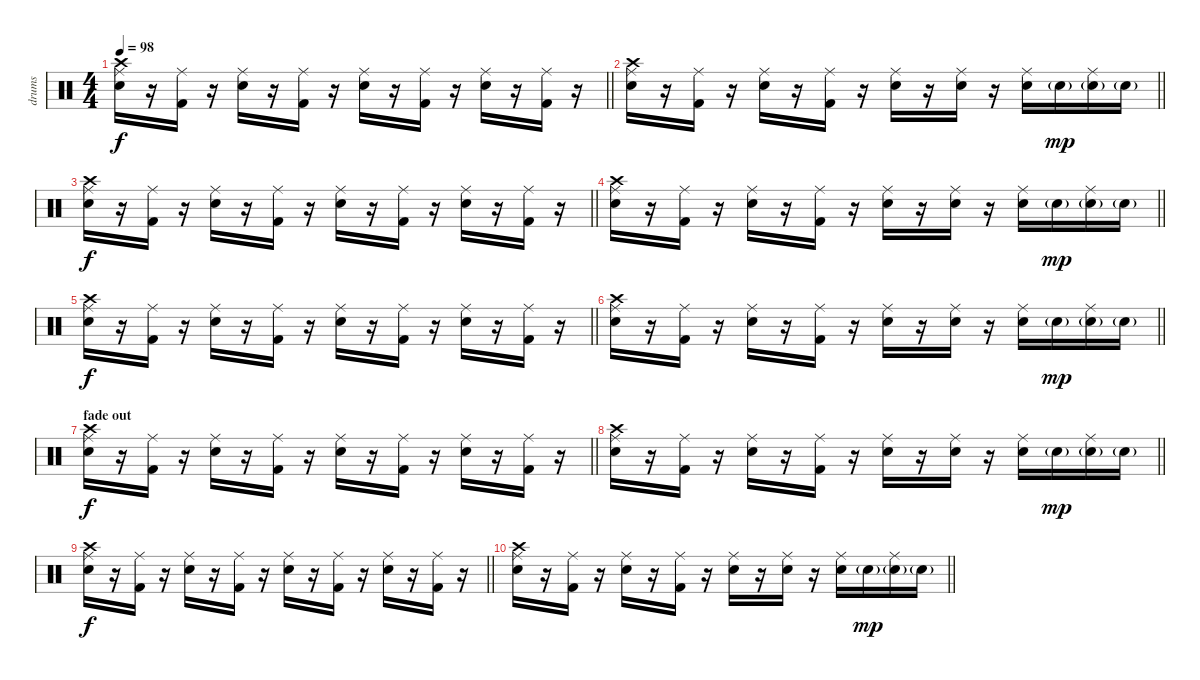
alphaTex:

\track ("drums" "drums") {instrument percussion}
\staff {score}
\articulation defaults
\ts (4 4)
\tempo 98
\clef neutral
\barLineRight lightlight
\ks c
("Electric Snare (hit)" "Ride (middle)" "Crash high (hit)").16{dy f} r.16 ("Kick (hit) 2" "Ride (middle)").16 r.16 ("Electric Snare (hit)" "Ride (middle)").16 r.16 ("Kick (hit) 2" "Ride (middle)").16 r.16 ("Electric Snare (hit)" "Ride (middle)").16 r.16 ("Kick (hit) 2" "Ride (middle)").16 r.16 ("Electric Snare (hit)" "Ride (middle)").16 r.16 ("Kick (hit) 2" "Ride (middle)").16 r.16 |
\barLineRight lightlight
("Electric Snare (hit)" "Ride (middle)" "Crash high (hit)").16 r.16 ("Kick (hit) 2" "Ride (middle)").16 r.16 ("Electric Snare (hit)" "Ride (middle)").16 r.16 ("Kick (hit) 2" "Ride (middle)").16 r.16 ("Electric Snare (hit)" "Ride (middle)").16 r.16 ("Electric Snare (hit)" "Ride (middle)").16 r.16 ("Electric Snare (hit)" "Ride (middle)").16 "Electric Snare (hit)"{g}.16{dy mp} ("Electric Snare (hit)"{g} "Ride (middle)").16 "Electric Snare (hit)"{g}.16 |
\barLineRight lightlight
("Electric Snare (hit)" "Ride (middle)" "Crash high (hit)").16{dy f} r.16 ("Kick (hit) 2" "Ride (middle)").16 r.16 ("Electric Snare (hit)" "Ride (middle)").16 r.16 ("Kick (hit) 2" "Ride (middle)").16 r.16 ("Electric Snare (hit)" "Ride (middle)").16 r.16 ("Kick (hit) 2" "Ride (middle)").16 r.16 ("Electric Snare (hit)" "Ride (middle)").16 r.16 ("Kick (hit) 2" "Ride (middle)").16 r.16 |
\barLineRight lightlight
("Electric Snare (hit)" "Ride (middle)" "Crash high (hit)").16 r.16 ("Kick (hit) 2" "Ride (middle)").16 r.16 ("Electric Snare (hit)" "Ride (middle)").16 r.16 ("Kick (hit) 2" "Ride (middle)").16 r.16 ("Electric Snare (hit)" "Ride (middle)").16 r.16 ("Electric Snare (hit)" "Ride (middle)").16 r.16 ("Electric Snare (hit)" "Ride (middle)").16 "Electric Snare (hit)"{g}.16{dy mp} ("Electric Snare (hit)"{g} "Ride (middle)").16 "Electric Snare (hit)"{g}.16 |
\barLineRight lightlight
("Electric Snare (hit)" "Ride (middle)" "Crash high (hit)").16{dy f} r.16 ("Kick (hit) 2" "Ride (middle)").16 r.16 ("Electric Snare (hit)" "Ride (middle)").16 r.16 ("Kick (hit) 2" "Ride (middle)").16 r.16 ("Electric Snare (hit)" "Ride (middle)").16 r.16 ("Kick (hit) 2" "Ride (middle)").16 r.16 ("Electric Snare (hit)" "Ride (middle)").16 r.16 ("Kick (hit) 2" "Ride (middle)").16 r.16 |
\barLineRight lightlight
("Electric Snare (hit)" "Ride (middle)" "Crash high (hit)").16 r.16 ("Kick (hit) 2" "Ride (middle)").16 r.16 ("Electric Snare (hit)" "Ride (middle)").16 r.16 ("Kick (hit) 2" "Ride (middle)").16 r.16 ("Electric Snare (hit)" "Ride (middle)").16 r.16 ("Electric Snare (hit)" "Ride (middle)").16 r.16 ("Electric Snare (hit)" "Ride (middle)").16 "Electric Snare (hit)"{g}.16{dy mp} ("Electric Snare (hit)"{g} "Ride (middle)").16 "Electric Snare (hit)"{g}.16 |
\section ("" "fade out")
\barLineRight lightlight
("Electric Snare (hit)" "Ride (middle)" "Crash high (hit)").16{dy f} r.16 ("Kick (hit) 2" "Ride (middle)").16 r.16 ("Electric Snare (hit)" "Ride (middle)").16 r.16 ("Kick (hit) 2" "Ride (middle)").16 r.16 ("Electric Snare (hit)" "Ride (middle)").16 r.16 ("Kick (hit) 2" "Ride (middle)").16 r.16 ("Electric Snare (hit)" "Ride (middle)").16 r.16 ("Kick (hit) 2" "Ride (middle)").16 r.16 |
\barLineRight lightlight
("Electric Snare (hit)" "Ride (middle)" "Crash high (hit)").16 r.16 ("Kick (hit) 2" "Ride (middle)").16 r.16 ("Electric Snare (hit)" "Ride (middle)").16 r.16 ("Kick (hit) 2" "Ride (middle)").16 r.16 ("Electric Snare (hit)" "Ride (middle)").16 r.16 ("Electric Snare (hit)" "Ride (middle)").16 r.16 ("Electric Snare (hit)" "Ride (middle)").16 "Electric Snare (hit)"{g}.16{dy mp} ("Electric Snare (hit)"{g} "Ride (middle)").16 "Electric Snare (hit)"{g}.16 |
\barLineRight lightlight
("Electric Snare (hit)" "Ride (middle)" "Crash high (hit)").16{dy f} r.16 ("Kick (hit) 2" "Ride (middle)").16 r.16 ("Electric Snare (hit)" "Ride (middle)").16 r.16 ("Kick (hit) 2" "Ride (middle)").16 r.16 ("Electric Snare (hit)" "Ride (middle)").16 r.16 ("Kick (hit) 2" "Ride (middle)").16 r.16 ("Electric Snare (hit)" "Ride (middle)").16 r.16 ("Kick (hit) 2" "Ride (middle)").16 r.16 |
\barLineRight lightlight
("Electric Snare (hit)" "Ride (middle)" "Crash high (hit)").16 r.16 ("Kick (hit) 2" "Ride (middle)").16 r.16 ("Electric Snare (hit)" "Ride (middle)").16 r.16 ("Kick (hit) 2" "Ride (middle)").16 r.16 ("Electric Snare (hit)" "Ride (middle)").16 r.16 ("Electric Snare (hit)" "Ride (middle)").16 r.16 ("Electric Snare (hit)" "Ride (middle)").16 "Electric Snare (hit)"{g}.16{dy mp} ("Electric Snare (hit)"{g} "Ride (middle)").16 "Electric Snare (hit)"{g}.16
